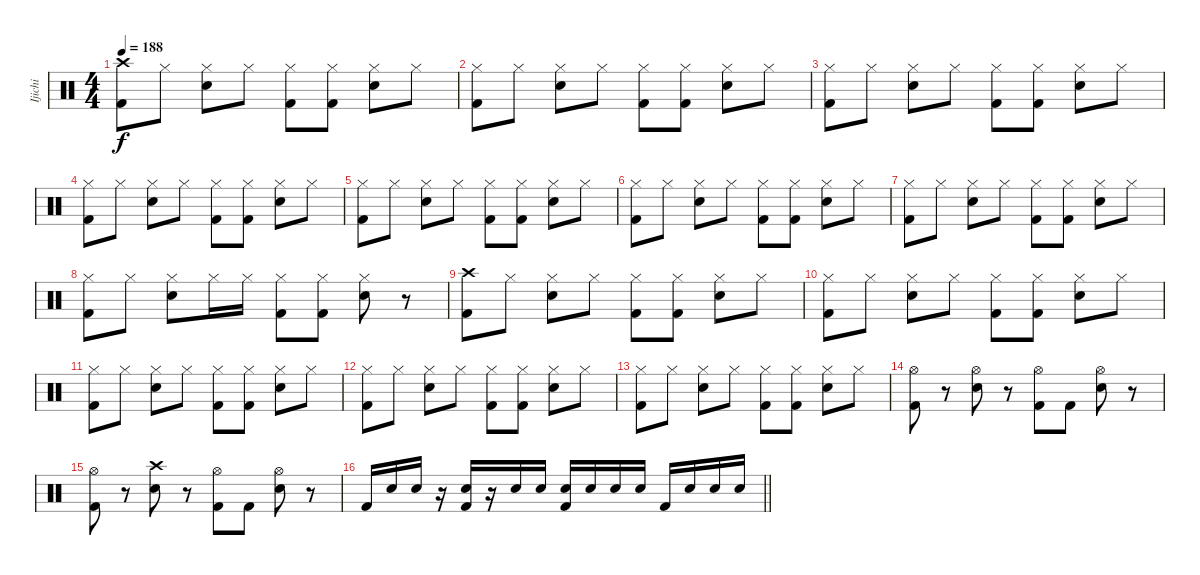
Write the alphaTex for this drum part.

\track ("Ijichi" "Ijichi") {instrument percussion}
\staff {score}
\articulation defaults
\ts (4 4)
\tempo 188
\clef neutral
\ks c
("Crash high (hit)" "Kick (hit) 2").8{dy f} "Hi-Hat (closed)".8 ("Hi-Hat (closed)" "Electric Snare (hit)").8 "Hi-Hat (closed)".8 ("Hi-Hat (closed)" "Kick (hit) 2").8 ("Hi-Hat (closed)" "Kick (hit) 2").8 ("Hi-Hat (closed)" "Electric Snare (hit)").8 "Hi-Hat (closed)".8 |
("Hi-Hat (closed)" "Kick (hit) 2").8 "Hi-Hat (closed)".8 ("Hi-Hat (closed)" "Electric Snare (hit)").8 "Hi-Hat (closed)".8 ("Hi-Hat (closed)" "Kick (hit) 2").8 ("Hi-Hat (closed)" "Kick (hit) 2").8 ("Hi-Hat (closed)" "Electric Snare (hit)").8 "Hi-Hat (closed)".8 |
("Hi-Hat (closed)" "Kick (hit) 2").8 "Hi-Hat (closed)".8 ("Hi-Hat (closed)" "Electric Snare (hit)").8 "Hi-Hat (closed)".8 ("Hi-Hat (closed)" "Kick (hit) 2").8 ("Hi-Hat (closed)" "Kick (hit) 2").8 ("Hi-Hat (closed)" "Electric Snare (hit)").8 "Hi-Hat (closed)".8 |
("Hi-Hat (closed)" "Kick (hit) 2").8 "Hi-Hat (closed)".8 ("Hi-Hat (closed)" "Electric Snare (hit)").8 "Hi-Hat (closed)".8 ("Hi-Hat (closed)" "Kick (hit) 2").8 ("Hi-Hat (closed)" "Kick (hit) 2").8 ("Hi-Hat (closed)" "Electric Snare (hit)").8 "Hi-Hat (closed)".8 |
("Hi-Hat (closed)" "Kick (hit) 2").8 "Hi-Hat (closed)".8 ("Hi-Hat (closed)" "Electric Snare (hit)").8 "Hi-Hat (closed)".8 ("Hi-Hat (closed)" "Kick (hit) 2").8 ("Hi-Hat (closed)" "Kick (hit) 2").8 ("Hi-Hat (closed)" "Electric Snare (hit)").8 "Hi-Hat (closed)".8 |
("Hi-Hat (closed)" "Kick (hit) 2").8 "Hi-Hat (closed)".8 ("Hi-Hat (closed)" "Electric Snare (hit)").8 "Hi-Hat (closed)".8 ("Hi-Hat (closed)" "Kick (hit) 2").8 ("Hi-Hat (closed)" "Kick (hit) 2").8 ("Hi-Hat (closed)" "Electric Snare (hit)").8 "Hi-Hat (closed)".8 |
("Hi-Hat (closed)" "Kick (hit) 2").8 "Hi-Hat (closed)".8 ("Hi-Hat (closed)" "Electric Snare (hit)").8 "Hi-Hat (closed)".8 ("Hi-Hat (closed)" "Kick (hit) 2").8 ("Hi-Hat (closed)" "Kick (hit) 2").8 ("Hi-Hat (closed)" "Electric Snare (hit)").8 "Hi-Hat (closed)".8 |
("Hi-Hat (closed)" "Kick (hit) 2").8 "Hi-Hat (closed)".8 ("Hi-Hat (closed)" "Electric Snare (hit)").8 "Hi-Hat (closed)".16 "Hi-Hat (closed)".16 ("Hi-Hat (closed)" "Kick (hit) 2").8 ("Hi-Hat (closed)" "Kick (hit) 2").8 ("Hi-Hat (closed)" "Electric Snare (hit)").8 r.8 |
("Crash high (hit)" "Kick (hit) 2").8 "Hi-Hat (closed)".8 ("Hi-Hat (closed)" "Electric Snare (hit)").8 "Hi-Hat (closed)".8 ("Hi-Hat (closed)" "Kick (hit) 2").8 ("Hi-Hat (closed)" "Kick (hit) 2").8 ("Hi-Hat (closed)" "Electric Snare (hit)").8 "Hi-Hat (closed)".8 |
("Hi-Hat (closed)" "Kick (hit) 2").8 "Hi-Hat (closed)".8 ("Hi-Hat (closed)" "Electric Snare (hit)").8 "Hi-Hat (closed)".8 ("Hi-Hat (closed)" "Kick (hit) 2").8 ("Hi-Hat (closed)" "Kick (hit) 2").8 ("Hi-Hat (closed)" "Electric Snare (hit)").8 "Hi-Hat (closed)".8 |
("Hi-Hat (closed)" "Kick (hit) 2").8 "Hi-Hat (closed)".8 ("Hi-Hat (closed)" "Electric Snare (hit)").8 "Hi-Hat (closed)".8 ("Hi-Hat (closed)" "Kick (hit) 2").8 ("Hi-Hat (closed)" "Kick (hit) 2").8 ("Hi-Hat (closed)" "Electric Snare (hit)").8 "Hi-Hat (closed)".8 |
("Hi-Hat (closed)" "Kick (hit) 2").8 "Hi-Hat (closed)".8 ("Hi-Hat (closed)" "Electric Snare (hit)").8 "Hi-Hat (closed)".8 ("Hi-Hat (closed)" "Kick (hit) 2").8 ("Hi-Hat (closed)" "Kick (hit) 2").8 ("Hi-Hat (closed)" "Electric Snare (hit)").8 "Hi-Hat (closed)".8 |
("Hi-Hat (closed)" "Kick (hit) 2").8 "Hi-Hat (closed)".8 ("Hi-Hat (closed)" "Electric Snare (hit)").8 "Hi-Hat (closed)".8 ("Hi-Hat (closed)" "Kick (hit) 2").8 ("Hi-Hat (closed)" "Kick (hit) 2").8 ("Hi-Hat (closed)" "Electric Snare (hit)").8 "Hi-Hat (closed)".8 |
("Hi-Hat (open)" "Kick (hit) 2").8 r.8 ("Hi-Hat (open)" "Electric Snare (hit)").8 r.8 ("Hi-Hat (open)" "Kick (hit) 2").8 "Kick (hit) 2".8 ("Hi-Hat (open)" "Electric Snare (hit)").8 r.8 |
("Hi-Hat (open)" "Kick (hit) 2").8 r.8 ("Crash high (hit)" "Electric Snare (hit)").8 r.8 ("Hi-Hat (open)" "Kick (hit) 2").8 "Kick (hit) 2".8 ("Hi-Hat (open)" "Electric Snare (hit)").8 r.8 |
\barLineRight lightlight "Kick (hit) 2".16 "Electric Snare (hit)".16 "Electric Snare (hit)".16
r.16 ("Electric Snare (hit)" "Kick (hit) 2").16 r.16 "Electric Snare (hit)".16 "Electric Snare (hit)".16 ("Electric Snare (hit)" "Kick (hit) 2").16 "Electric Snare (hit)".16 "Electric Snare (hit)".16 "Electric Snare (hit)".16 "Kick (hit) 2".16 "Electric Snare (hit)".16 "Electric Snare (hit)".16 "Electric Snare (hit)".16
